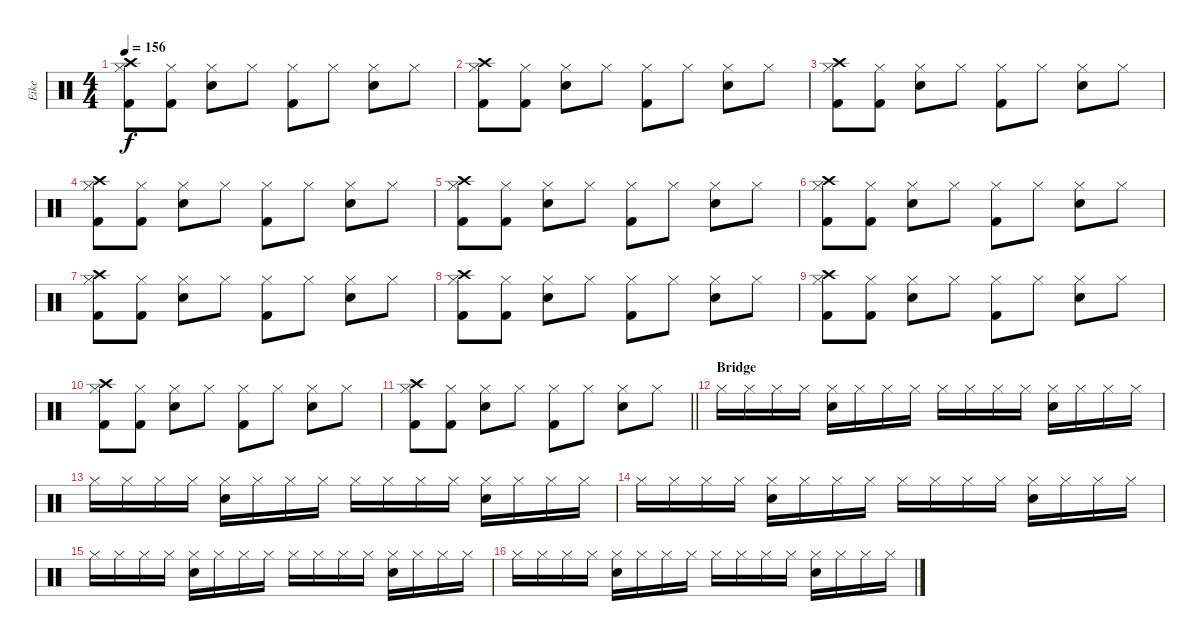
\track ("Eike" "Eike") {instrument percussion}
\staff {score}
\articulation defaults
\ts (4 4)
\tempo 156
\clef neutral
\ks c
("Hi-Hat (closed)" "Kick (hit) 2" "Crash high (hit)").8{dy f} ("Hi-Hat (closed)" "Kick (hit) 2").8 ("Hi-Hat (closed)" "Snare (hit) 2").8 "Hi-Hat (closed)".8 ("Hi-Hat (closed)" "Kick (hit) 2").8 "Hi-Hat (closed)".8 ("Hi-Hat (closed)" "Snare (hit) 2").8 "Hi-Hat (closed)".8 |
("Hi-Hat (closed)" "Kick (hit) 2" "Crash high (hit)").8 ("Hi-Hat (closed)" "Kick (hit) 2").8 ("Hi-Hat (closed)" "Snare (hit) 2").8 "Hi-Hat (closed)".8 ("Hi-Hat (closed)" "Kick (hit) 2").8 "Hi-Hat (closed)".8 ("Hi-Hat (closed)" "Snare (hit) 2").8 "Hi-Hat (closed)".8 |
("Hi-Hat (closed)" "Kick (hit) 2" "Crash high (hit)").8 ("Hi-Hat (closed)" "Kick (hit) 2").8 ("Hi-Hat (closed)" "Snare (hit) 2").8 "Hi-Hat (closed)".8 ("Hi-Hat (closed)" "Kick (hit) 2").8 "Hi-Hat (closed)".8 ("Hi-Hat (closed)" "Snare (hit) 2").8 "Hi-Hat (closed)".8 |
("Hi-Hat (closed)" "Kick (hit) 2" "Crash high (hit)").8 ("Hi-Hat (closed)" "Kick (hit) 2").8 ("Hi-Hat (closed)" "Snare (hit) 2").8 "Hi-Hat (closed)".8 ("Hi-Hat (closed)" "Kick (hit) 2").8 "Hi-Hat (closed)".8 ("Hi-Hat (closed)" "Snare (hit) 2").8 "Hi-Hat (closed)".8 |
("Hi-Hat (closed)" "Kick (hit) 2" "Crash high (hit)").8 ("Hi-Hat (closed)" "Kick (hit) 2").8 ("Hi-Hat (closed)" "Snare (hit) 2").8 "Hi-Hat (closed)".8 ("Hi-Hat (closed)" "Kick (hit) 2").8 "Hi-Hat (closed)".8 ("Hi-Hat (closed)" "Snare (hit) 2").8 "Hi-Hat (closed)".8 |
("Hi-Hat (closed)" "Kick (hit) 2" "Crash high (hit)").8 ("Hi-Hat (closed)" "Kick (hit) 2").8 ("Hi-Hat (closed)" "Snare (hit) 2").8 "Hi-Hat (closed)".8 ("Hi-Hat (closed)" "Kick (hit) 2").8 "Hi-Hat (closed)".8 ("Hi-Hat (closed)" "Snare (hit) 2").8 "Hi-Hat (closed)".8 |
("Hi-Hat (closed)" "Kick (hit) 2" "Crash high (hit)").8 ("Hi-Hat (closed)" "Kick (hit) 2").8 ("Hi-Hat (closed)" "Snare (hit) 2").8 "Hi-Hat (closed)".8 ("Hi-Hat (closed)" "Kick (hit) 2").8 "Hi-Hat (closed)".8 ("Hi-Hat (closed)" "Snare (hit) 2").8 "Hi-Hat (closed)".8 |
("Hi-Hat (closed)" "Kick (hit) 2" "Crash high (hit)").8 ("Hi-Hat (closed)" "Kick (hit) 2").8 ("Hi-Hat (closed)" "Snare (hit) 2").8 "Hi-Hat (closed)".8 ("Hi-Hat (closed)" "Kick (hit) 2").8 "Hi-Hat (closed)".8 ("Hi-Hat (closed)" "Snare (hit) 2").8 "Hi-Hat (closed)".8 |
("Hi-Hat (closed)" "Kick (hit) 2" "Crash high (hit)").8 ("Hi-Hat (closed)" "Kick (hit) 2").8 ("Hi-Hat (closed)" "Snare (hit) 2").8 "Hi-Hat (closed)".8 ("Hi-Hat (closed)" "Kick (hit) 2").8 "Hi-Hat (closed)".8 ("Hi-Hat (closed)" "Snare (hit) 2").8 "Hi-Hat (closed)".8 |
("Hi-Hat (closed)" "Kick (hit) 2" "Crash high (hit)").8 ("Hi-Hat (closed)" "Kick (hit) 2").8 ("Hi-Hat (closed)" "Snare (hit) 2").8 "Hi-Hat (closed)".8 ("Hi-Hat (closed)" "Kick (hit) 2").8 "Hi-Hat (closed)".8 ("Hi-Hat (closed)" "Snare (hit) 2").8 "Hi-Hat (closed)".8 |
\barLineRight lightlight
("Hi-Hat (closed)" "Kick (hit) 2" "Crash high (hit)").8 ("Hi-Hat (closed)" "Kick (hit) 2").8 ("Hi-Hat (closed)" "Snare (hit) 2").8 "Hi-Hat (closed)".8 ("Hi-Hat (closed)" "Kick (hit) 2").8 "Hi-Hat (closed)".8 ("Hi-Hat (closed)" "Snare (hit) 2").8 "Hi-Hat (closed)".8 |
\section ("" "Bridge")
"Hi-Hat (closed)".16 "Hi-Hat (closed)".16 "Hi-Hat (closed)".16 "Hi-Hat (closed)".16 ("Hi-Hat (closed)" "Snare (hit) 2").16 "Hi-Hat (closed)".16 "Hi-Hat (closed)".16 "Hi-Hat (closed)".16 "Hi-Hat (closed)".16 "Hi-Hat (closed)".16 "Hi-Hat (closed)".16 "Hi-Hat (closed)".16 ("Hi-Hat (closed)" "Snare (hit) 2").16 "Hi-Hat (closed)".16 "Hi-Hat (closed)".16 "Hi-Hat (closed)".16 |
"Hi-Hat (closed)".16 "Hi-Hat (closed)".16 "Hi-Hat (closed)".16 "Hi-Hat (closed)".16 ("Hi-Hat (closed)" "Snare (hit) 2").16 "Hi-Hat (closed)".16 "Hi-Hat (closed)".16 "Hi-Hat (closed)".16 "Hi-Hat (closed)".16 "Hi-Hat (closed)".16 "Hi-Hat (closed)".16 "Hi-Hat (closed)".16 ("Hi-Hat (closed)" "Snare (hit) 2").16 "Hi-Hat (closed)".16 "Hi-Hat (closed)".16 "Hi-Hat (closed)".16 |
"Hi-Hat (closed)".16 "Hi-Hat (closed)".16 "Hi-Hat (closed)".16 "Hi-Hat (closed)".16 ("Hi-Hat (closed)" "Snare (hit) 2").16 "Hi-Hat (closed)".16 "Hi-Hat (closed)".16 "Hi-Hat (closed)".16 "Hi-Hat (closed)".16 "Hi-Hat (closed)".16 "Hi-Hat (closed)".16 "Hi-Hat (closed)".16 ("Hi-Hat (closed)" "Snare (hit) 2").16 "Hi-Hat (closed)".16 "Hi-Hat (closed)".16 "Hi-Hat (closed)".16 |
"Hi-Hat (closed)".16 "Hi-Hat (closed)".16 "Hi-Hat (closed)".16 "Hi-Hat (closed)".16 ("Hi-Hat (closed)" "Snare (hit) 2").16 "Hi-Hat (closed)".16 "Hi-Hat (closed)".16 "Hi-Hat (closed)".16 "Hi-Hat (closed)".16 "Hi-Hat (closed)".16 "Hi-Hat (closed)".16 "Hi-Hat (closed)".16 ("Hi-Hat (closed)" "Snare (hit) 2").16 "Hi-Hat (closed)".16 "Hi-Hat (closed)".16 "Hi-Hat (closed)".16 |
"Hi-Hat (closed)".16 "Hi-Hat (closed)".16 "Hi-Hat (closed)".16 "Hi-Hat (closed)".16 ("Hi-Hat (closed)" "Snare (hit) 2").16 "Hi-Hat (closed)".16 "Hi-Hat (closed)".16 "Hi-Hat (closed)".16 "Hi-Hat (closed)".16 "Hi-Hat (closed)".16 "Hi-Hat (closed)".16 "Hi-Hat (closed)".16 ("Hi-Hat (closed)" "Snare (hit) 2").16 "Hi-Hat (closed)".16 "Hi-Hat (closed)".16 "Hi-Hat (closed)".16
